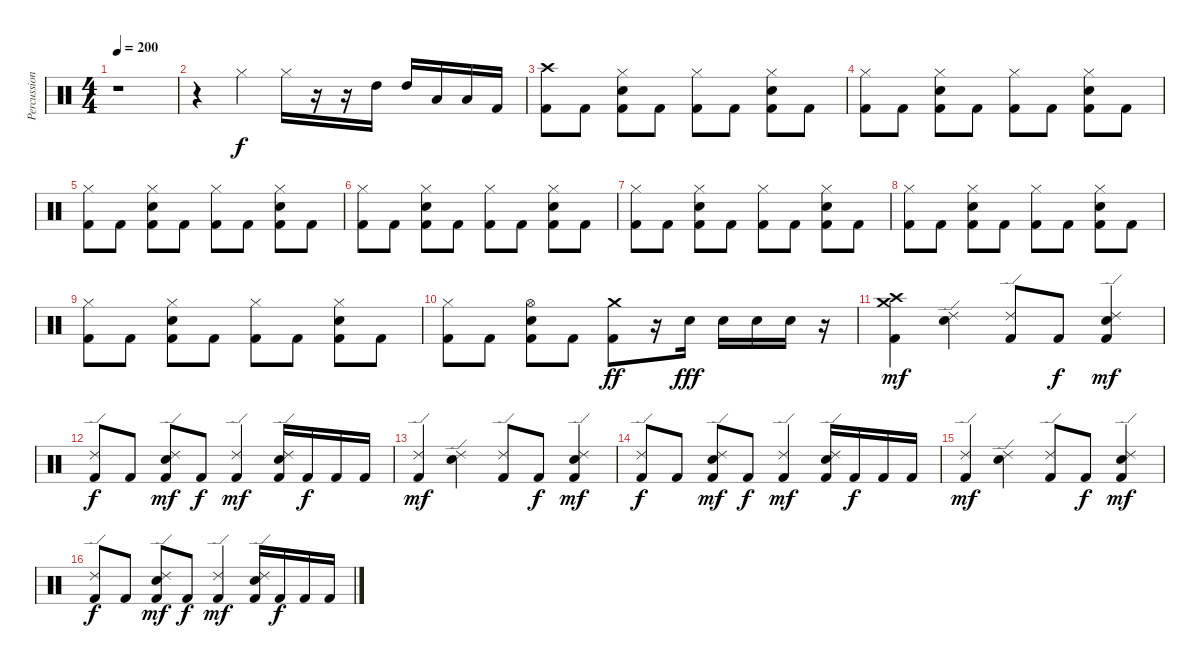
\track ("Percussion" "Percussion") {instrument percussion}
\staff {score}
\articulation defaults
\ts (4 4)
\tempo 200
\clef neutral
\ks c
r.1{dy fff} |
r.4 "Hi-Hat (closed)".4{dy f} "Hi-Hat (closed)".16 r.16 r.16 "High Tom (hit)".16 "High Tom (hit)".16 "Low Tom (hit)".16 "Low Tom (hit)".16 "Kick (hit) 2".16 |
("Crash high (hit)" "Kick (hit) 2").8 "Kick (hit) 2".8 ("Hi-Hat (closed)" "Snare (hit) 2" "Kick (hit) 2").8 "Kick (hit) 2".8 ("Hi-Hat (closed)" "Kick (hit) 2").8 "Kick (hit) 2".8 ("Hi-Hat (closed)" "Snare (hit) 2" "Kick (hit) 2").8 "Kick (hit) 2".8 |
("Hi-Hat (closed)" "Kick (hit) 2").8 "Kick (hit) 2".8 ("Hi-Hat (closed)" "Snare (hit) 2" "Kick (hit) 2").8 "Kick (hit) 2".8 ("Hi-Hat (closed)" "Kick (hit) 2").8 "Kick (hit) 2".8 ("Hi-Hat (closed)" "Snare (hit) 2" "Kick (hit) 2").8 "Kick (hit) 2".8 |
("Hi-Hat (closed)" "Kick (hit) 2").8 "Kick (hit) 2".8 ("Hi-Hat (closed)" "Snare (hit) 2" "Kick (hit) 2").8 "Kick (hit) 2".8 ("Hi-Hat (closed)" "Kick (hit) 2").8 "Kick (hit) 2".8 ("Hi-Hat (closed)" "Snare (hit) 2" "Kick (hit) 2").8 "Kick (hit) 2".8 |
("Hi-Hat (closed)" "Kick (hit) 2").8 "Kick (hit) 2".8 ("Hi-Hat (closed)" "Snare (hit) 2" "Kick (hit) 2").8 "Kick (hit) 2".8 ("Hi-Hat (closed)" "Kick (hit) 2").8 "Kick (hit) 2".8 ("Hi-Hat (closed)" "Snare (hit) 2" "Kick (hit) 2").8 "Kick (hit) 2".8 |
("Hi-Hat (closed)" "Kick (hit) 2").8 "Kick (hit) 2".8 ("Hi-Hat (closed)" "Snare (hit) 2" "Kick (hit) 2").8 "Kick (hit) 2".8 ("Hi-Hat (closed)" "Kick (hit) 2").8 "Kick (hit) 2".8 ("Hi-Hat (closed)" "Snare (hit) 2" "Kick (hit) 2").8 "Kick (hit) 2".8 |
("Hi-Hat (closed)" "Kick (hit) 2").8 "Kick (hit) 2".8 ("Hi-Hat (closed)" "Snare (hit) 2" "Kick (hit) 2").8 "Kick (hit) 2".8 ("Hi-Hat (closed)" "Kick (hit) 2").8 "Kick (hit) 2".8 ("Hi-Hat (closed)" "Snare (hit) 2" "Kick (hit) 2").8 "Kick (hit) 2".8 |
("Hi-Hat (closed)" "Kick (hit) 2").8 "Kick (hit) 2".8 ("Hi-Hat (closed)" "Snare (hit) 2" "Kick (hit) 2").8 "Kick (hit) 2".8 ("Hi-Hat (closed)" "Kick (hit) 2").8 "Kick (hit) 2".8 ("Hi-Hat (closed)" "Snare (hit) 2" "Kick (hit) 2").8 "Kick (hit) 2".8 |
("Hi-Hat (closed)" "Kick (hit) 2").8 "Kick (hit) 2".8 ("Hi-Hat (open)" "Snare (hit) 2" "Kick (hit) 2").8 "Kick (hit) 2".8 ("Crash medium (hit)" "Kick (hit) 2").8{dy ff} r.16 "Snare (hit) 2".16{dy fff} "Snare (hit) 2".16 "Snare (hit) 2".16 "Snare (hit) 2".16 r.16 |
("Crash high (hit)" "Crash medium (hit)" "Kick (hit) 2").4{dy mf} ("Ride (edge) 2" "Snare (hit) 2").4 ("Ride (edge) 2" "Kick (hit) 2").8 "Kick (hit) 2".8{dy f} ("Ride (edge) 2" "Snare (hit) 2" "Kick (hit) 2").4{dy mf} |
("Ride (edge) 2" "Kick (hit) 2").8{dy f} "Kick (hit) 2".8 ("Ride (edge) 2" "Snare (hit) 2" "Kick (hit) 2").8{dy mf} "Kick (hit) 2".8{dy f} ("Ride (edge) 2" "Kick (hit) 2").4{dy mf} ("Ride (edge) 2" "Snare (hit) 2" "Kick (hit) 2").16 "Kick (hit) 2".16{dy f} "Kick (hit) 2".16 "Kick (hit) 2".16 |
("Ride (edge) 2" "Kick (hit) 2").4{dy mf} ("Ride (edge) 2" "Snare (hit) 2").4 ("Ride (edge) 2" "Kick (hit) 2").8 "Kick (hit) 2".8{dy f} ("Ride (edge) 2" "Snare (hit) 2" "Kick (hit) 2").4{dy mf} |
("Ride (edge) 2" "Kick (hit) 2").8{dy f} "Kick (hit) 2".8 ("Ride (edge) 2" "Snare (hit) 2" "Kick (hit) 2").8{dy mf} "Kick (hit) 2".8{dy f} ("Ride (edge) 2" "Kick (hit) 2").4{dy mf} ("Ride (edge) 2" "Snare (hit) 2" "Kick (hit) 2").16 "Kick (hit) 2".16{dy f} "Kick (hit) 2".16 "Kick (hit) 2".16 |
("Ride (edge) 2" "Kick (hit) 2").4{dy mf} ("Ride (edge) 2" "Snare (hit) 2").4 ("Ride (edge) 2" "Kick (hit) 2").8 "Kick (hit) 2".8{dy f} ("Ride (edge) 2" "Snare (hit) 2" "Kick (hit) 2").4{dy mf} |
("Ride (edge) 2" "Kick (hit) 2").8{dy f} "Kick (hit) 2".8 ("Ride (edge) 2" "Snare (hit) 2" "Kick (hit) 2").8{dy mf} "Kick (hit) 2".8{dy f} ("Ride (edge) 2" "Kick (hit) 2").4{dy mf} ("Ride (edge) 2" "Snare (hit) 2" "Kick (hit) 2").16 "Kick (hit) 2".16{dy f} "Kick (hit) 2".16 "Kick (hit) 2".16
